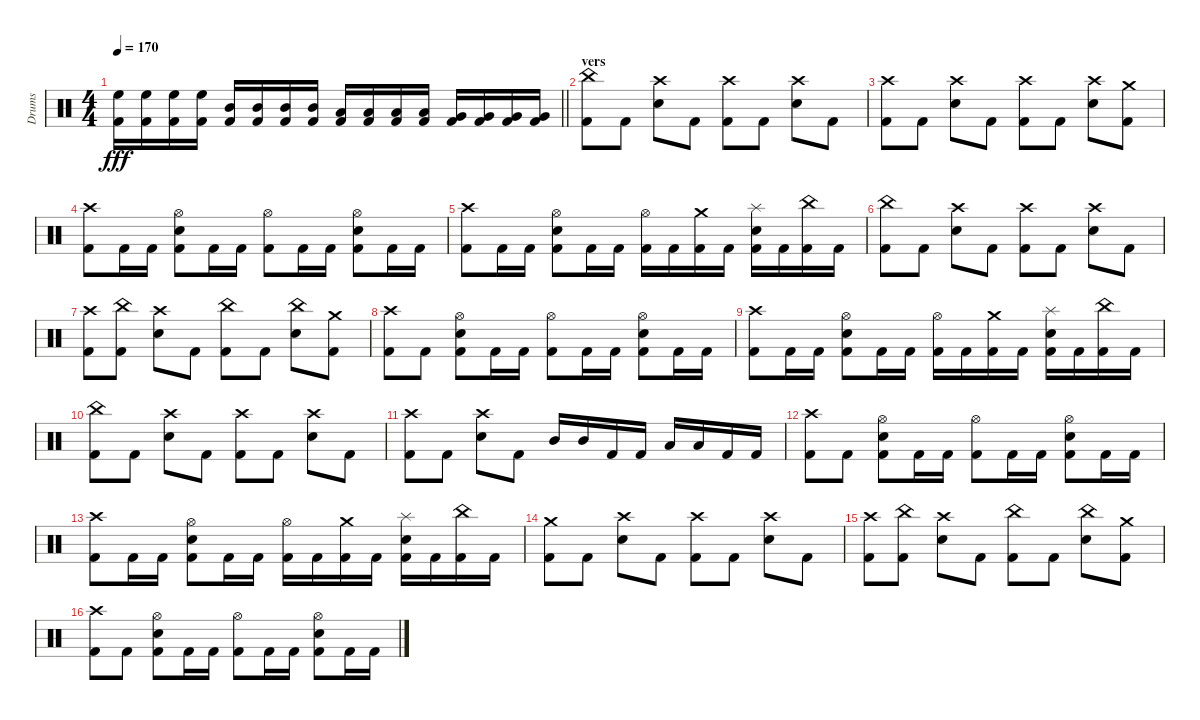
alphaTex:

\track ("Drums" "Drums") {instrument percussion}
\staff {score}
\articulation defaults
\ts (4 4)
\tempo 170
\clef neutral
\barLineRight lightlight
\ks c
("High Floor Tom (hit)" "Kick (hit) 2").16{dy fff} ("High Floor Tom (hit)" "Kick (hit) 2").16 ("High Floor Tom (hit)" "Kick (hit) 2").16 ("High Floor Tom (hit)" "Kick (hit) 2").16 ("Mid Tom (hit)" "Kick (hit) 2").16 ("Mid Tom (hit)" "Kick (hit) 2").16 ("Mid Tom (hit)" "Kick (hit) 2").16 ("Mid Tom (hit)" "Kick (hit) 2").16 ("Low Tom (hit)" "Kick (hit) 2").16 ("Low Tom (hit)" "Kick (hit) 2").16 ("Low Tom (hit)" "Kick (hit) 2").16 ("Low Tom (hit)" "Kick (hit) 2").16 ("Very Low Tom (hit)" "Kick (hit) 2").16 ("Very Low Tom (hit)" "Kick (hit) 2").16 ("Very Low Tom (hit)" "Kick (hit) 2").16 ("Very Low Tom (hit)" "Kick (hit) 2").16 |
\section ("" "vers")
("China (hit)" "Kick (hit) 2").8 "Kick (hit) 2".8 ("Crash high (hit)" "Snare (hit) 2").8 "Kick (hit) 2".8 ("Crash high (hit)" "Kick (hit) 2").8 "Kick (hit) 2".8 ("Crash high (hit)" "Snare (hit) 2").8 "Kick (hit) 2".8 |
("Crash high (hit)" "Kick (hit) 2").8 "Kick (hit) 2".8 ("Crash high (hit)" "Snare (hit) 2").8 "Kick (hit) 2".8 ("Crash high (hit)" "Kick (hit) 2").8 "Kick (hit) 2".8 ("Crash high (hit)" "Snare (hit) 2").8 ("Crash medium (hit)" "Kick (hit) 2").8 |
("Crash high (hit)" "Kick (hit) 2").8 "Kick (hit) 2".16 "Kick (hit) 2".16 ("Snare (hit) 2" "Hi-Hat (open)" "Kick (hit) 2").8 "Kick (hit) 2".16 "Kick (hit) 2".16 ("Hi-Hat (open)" "Kick (hit) 2").8 "Kick (hit) 2".16 "Kick (hit) 2".16 ("Snare (hit) 2" "Hi-Hat (open)" "Kick (hit) 2").8 "Kick (hit) 2".16 "Kick (hit) 2".16 |
("Crash high (hit)" "Kick (hit) 2").8 "Kick (hit) 2".16 "Kick (hit) 2".16 ("Snare (hit) 2" "Hi-Hat (open)" "Kick (hit) 2").8 "Kick (hit) 2".16 "Kick (hit) 2".16 ("Hi-Hat (open)" "Kick (hit) 2").16 "Kick (hit) 2".16 ("Crash medium (hit)" "Kick (hit) 2").16 "Kick (hit) 2".16 ("Splash (hit)" "Snare (hit) 2" "Kick (hit) 2").16 "Kick (hit) 2".16 ("China (hit)" "Kick (hit) 2").16 "Kick (hit) 2".16 |
("China (hit)" "Kick (hit) 2").8 "Kick (hit) 2".8 ("Crash high (hit)" "Snare (hit) 2").8 "Kick (hit) 2".8 ("Crash high (hit)" "Kick (hit) 2").8 "Kick (hit) 2".8 ("Crash high (hit)" "Snare (hit) 2").8 "Kick (hit) 2".8 |
("Crash high (hit)" "Kick (hit) 2").8 ("China (hit)" "Kick (hit) 2").8 ("Crash high (hit)" "Snare (hit) 2").8 "Kick (hit) 2".8 ("China (hit)" "Kick (hit) 2").8 "Kick (hit) 2".8 ("China (hit)" "Snare (hit) 2").8 ("Crash medium (hit)" "Kick (hit) 2").8 |
("Crash high (hit)" "Kick (hit) 2").8 "Kick (hit) 2".8 ("Snare (hit) 2" "Hi-Hat (open)" "Kick (hit) 2").8 "Kick (hit) 2".16 "Kick (hit) 2".16 ("Hi-Hat (open)" "Kick (hit) 2").8 "Kick (hit) 2".16 "Kick (hit) 2".16 ("Snare (hit) 2" "Hi-Hat (open)" "Kick (hit) 2").8 "Kick (hit) 2".16 "Kick (hit) 2".16 |
("Crash high (hit)" "Kick (hit) 2").8 "Kick (hit) 2".16 "Kick (hit) 2".16 ("Snare (hit) 2" "Hi-Hat (open)" "Kick (hit) 2").8 "Kick (hit) 2".16 "Kick (hit) 2".16 ("Hi-Hat (open)" "Kick (hit) 2").16 "Kick (hit) 2".16 ("Crash medium (hit)" "Kick (hit) 2").16 "Kick (hit) 2".16 ("Splash (hit)" "Snare (hit) 2" "Kick (hit) 2").16 "Kick (hit) 2".16 ("China (hit)" "Kick (hit) 2").16 "Kick (hit) 2".16 |
("China (hit)" "Kick (hit) 2").8 "Kick (hit) 2".8 ("Crash high (hit)" "Snare (hit) 2").8 "Kick (hit) 2".8 ("Crash high (hit)" "Kick (hit) 2").8 "Kick (hit) 2".8 ("Crash high (hit)" "Snare (hit) 2").8 "Kick (hit) 2".8 |
("Crash high (hit)" "Kick (hit) 2").8 "Kick (hit) 2".8 ("Crash high (hit)" "Snare (hit) 2").8 "Kick (hit) 2".8 "Mid Tom (hit)".16 "Mid Tom (hit)".16 "Kick (hit) 2".16 "Kick (hit) 2".16 "Low Tom (hit)".16 "Low Tom (hit)".16 "Kick (hit) 2".16 "Kick (hit) 2".16 |
("Crash high (hit)" "Kick (hit) 2").8 "Kick (hit) 2".8 ("Snare (hit) 2" "Hi-Hat (open)" "Kick (hit) 2").8 "Kick (hit) 2".16 "Kick (hit) 2".16 ("Hi-Hat (open)" "Kick (hit) 2").8 "Kick (hit) 2".16 "Kick (hit) 2".16 ("Snare (hit) 2" "Hi-Hat (open)" "Kick (hit) 2").8 "Kick (hit) 2".16 "Kick (hit) 2".16 |
("Crash high (hit)" "Kick (hit) 2").8 "Kick (hit) 2".16 "Kick (hit) 2".16 ("Snare (hit) 2" "Hi-Hat (open)" "Kick (hit) 2").8 "Kick (hit) 2".16 "Kick (hit) 2".16 ("Hi-Hat (open)" "Kick (hit) 2").16 "Kick (hit) 2".16 ("Crash medium (hit)" "Kick (hit) 2").16 "Kick (hit) 2".16 ("Splash (hit)" "Snare (hit) 2" "Kick (hit) 2").16 "Kick (hit) 2".16 ("China (hit)" "Kick (hit) 2").16 "Kick (hit) 2".16 |
("Crash medium (hit)" "Kick (hit) 2").8 "Kick (hit) 2".8 ("Crash high (hit)" "Snare (hit) 2").8 "Kick (hit) 2".8 ("Crash high (hit)" "Kick (hit) 2").8 "Kick (hit) 2".8 ("Crash high (hit)" "Snare (hit) 2").8 "Kick (hit) 2".8 |
("Crash high (hit)" "Kick (hit) 2").8 ("China (hit)" "Kick (hit) 2").8 ("Crash high (hit)" "Snare (hit) 2").8 "Kick (hit) 2".8 ("China (hit)" "Kick (hit) 2").8 "Kick (hit) 2".8 ("China (hit)" "Snare (hit) 2").8 ("Crash medium (hit)" "Kick (hit) 2").8 |
("Crash high (hit)" "Kick (hit) 2").8 "Kick (hit) 2".8 ("Snare (hit) 2" "Hi-Hat (open)" "Kick (hit) 2").8 "Kick (hit) 2".16 "Kick (hit) 2".16 ("Hi-Hat (open)" "Kick (hit) 2").8 "Kick (hit) 2".16 "Kick (hit) 2".16 ("Snare (hit) 2" "Hi-Hat (open)" "Kick (hit) 2").8 "Kick (hit) 2".16 "Kick (hit) 2".16
